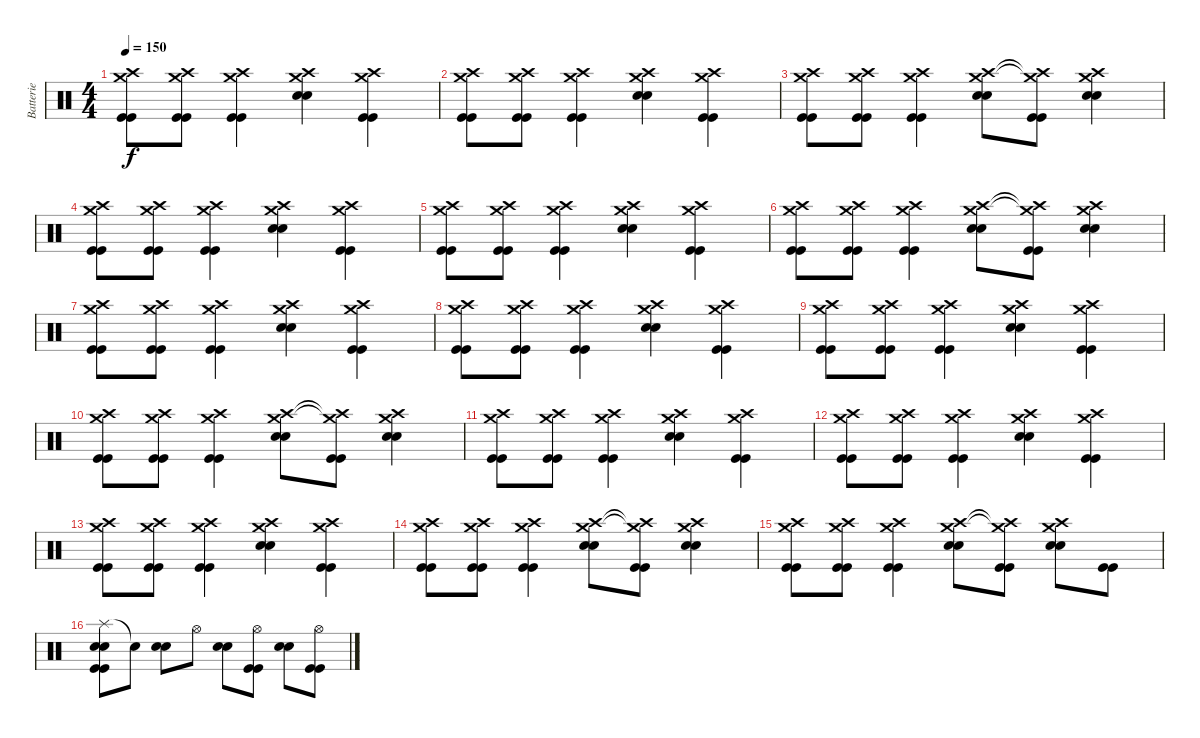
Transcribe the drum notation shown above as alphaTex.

\track ("Batterie" "Batterie") {instrument percussion}
\staff {score}
\articulation defaults
\ts (4 4)
\tempo 150
\clef neutral
\ks c
("Crash high (hit)" "Crash medium (hit)" "Kick (hit)" "Kick (hit)").8{dy f} ("Crash high (hit)" "Crash medium (hit)" "Kick (hit)" "Kick (hit)").8 ("Crash high (hit)" "Crash medium (hit)" "Kick (hit)" "Kick (hit)").4 ("Crash high (hit)" "Crash medium (hit)" "Electric Snare (hit)" "Electric Snare (hit)").4 ("Crash high (hit)" "Crash medium (hit)" "Kick (hit)" "Kick (hit)").4 |
("Crash high (hit)" "Crash medium (hit)" "Kick (hit)" "Kick (hit)").8 ("Crash high (hit)" "Crash medium (hit)" "Kick (hit)" "Kick (hit)").8 ("Crash high (hit)" "Crash medium (hit)" "Kick (hit)" "Kick (hit)").4 ("Crash high (hit)" "Crash medium (hit)" "Electric Snare (hit)" "Electric Snare (hit)").4 ("Crash high (hit)" "Crash medium (hit)" "Kick (hit)" "Kick (hit)").4 |
("Crash high (hit)" "Crash medium (hit)" "Kick (hit)" "Kick (hit)").8 ("Crash high (hit)" "Crash medium (hit)" "Kick (hit)" "Kick (hit)").8 ("Crash high (hit)" "Crash medium (hit)" "Kick (hit)" "Kick (hit)").4 ("Crash high (hit)" "Crash medium (hit)" "Electric Snare (hit)" "Electric Snare (hit)").8 ("Crash high (hit)"{t} "Crash medium (hit)"{t} "Kick (hit)" "Kick (hit)").8 ("Crash high (hit)" "Crash medium (hit)" "Electric Snare (hit)" "Electric Snare (hit)").4 |
("Crash high (hit)" "Crash medium (hit)" "Kick (hit)" "Kick (hit)").8 ("Crash high (hit)" "Crash medium (hit)" "Kick (hit)" "Kick (hit)").8 ("Crash high (hit)" "Crash medium (hit)" "Kick (hit)" "Kick (hit)").4 ("Crash high (hit)" "Crash medium (hit)" "Electric Snare (hit)" "Electric Snare (hit)").4 ("Crash high (hit)" "Crash medium (hit)" "Kick (hit)" "Kick (hit)").4 |
("Crash high (hit)" "Crash medium (hit)" "Kick (hit)" "Kick (hit)").8 ("Crash high (hit)" "Crash medium (hit)" "Kick (hit)" "Kick (hit)").8 ("Crash high (hit)" "Crash medium (hit)" "Kick (hit)" "Kick (hit)").4 ("Crash high (hit)" "Crash medium (hit)" "Electric Snare (hit)" "Electric Snare (hit)").4 ("Crash high (hit)" "Crash medium (hit)" "Kick (hit)" "Kick (hit)").4 |
("Crash high (hit)" "Crash medium (hit)" "Kick (hit)" "Kick (hit)").8 ("Crash high (hit)" "Crash medium (hit)" "Kick (hit)" "Kick (hit)").8 ("Crash high (hit)" "Crash medium (hit)" "Kick (hit)" "Kick (hit)").4 ("Crash high (hit)" "Crash medium (hit)" "Electric Snare (hit)" "Electric Snare (hit)").8 ("Crash high (hit)"{t} "Crash medium (hit)"{t} "Kick (hit)" "Kick (hit)").8 ("Crash high (hit)" "Crash medium (hit)" "Electric Snare (hit)" "Electric Snare (hit)").4 |
("Crash high (hit)" "Crash medium (hit)" "Kick (hit)" "Kick (hit)").8 ("Crash high (hit)" "Crash medium (hit)" "Kick (hit)" "Kick (hit)").8 ("Crash high (hit)" "Crash medium (hit)" "Kick (hit)" "Kick (hit)").4 ("Crash high (hit)" "Crash medium (hit)" "Electric Snare (hit)" "Electric Snare (hit)").4 ("Crash high (hit)" "Crash medium (hit)" "Kick (hit)" "Kick (hit)").4 |
("Crash high (hit)" "Crash medium (hit)" "Kick (hit)" "Kick (hit)").8 ("Crash high (hit)" "Crash medium (hit)" "Kick (hit)" "Kick (hit)").8 ("Crash high (hit)" "Crash medium (hit)" "Kick (hit)" "Kick (hit)").4 ("Crash high (hit)" "Crash medium (hit)" "Electric Snare (hit)" "Electric Snare (hit)").4 ("Crash high (hit)" "Crash medium (hit)" "Kick (hit)" "Kick (hit)").4 |
("Crash high (hit)" "Crash medium (hit)" "Kick (hit)" "Kick (hit)").8 ("Crash high (hit)" "Crash medium (hit)" "Kick (hit)" "Kick (hit)").8 ("Crash high (hit)" "Crash medium (hit)" "Kick (hit)" "Kick (hit)").4 ("Crash high (hit)" "Crash medium (hit)" "Electric Snare (hit)" "Electric Snare (hit)").4 ("Crash high (hit)" "Crash medium (hit)" "Kick (hit)" "Kick (hit)").4 |
("Crash high (hit)" "Crash medium (hit)" "Kick (hit)" "Kick (hit)").8 ("Crash high (hit)" "Crash medium (hit)" "Kick (hit)" "Kick (hit)").8 ("Crash high (hit)" "Crash medium (hit)" "Kick (hit)" "Kick (hit)").4 ("Crash high (hit)" "Crash medium (hit)" "Electric Snare (hit)" "Electric Snare (hit)").8 ("Crash high (hit)"{t} "Crash medium (hit)"{t} "Kick (hit)" "Kick (hit)").8 ("Crash high (hit)" "Crash medium (hit)" "Electric Snare (hit)" "Electric Snare (hit)").4 |
("Crash high (hit)" "Crash medium (hit)" "Kick (hit)" "Kick (hit)").8 ("Crash high (hit)" "Crash medium (hit)" "Kick (hit)" "Kick (hit)").8 ("Crash high (hit)" "Crash medium (hit)" "Kick (hit)" "Kick (hit)").4 ("Crash high (hit)" "Crash medium (hit)" "Electric Snare (hit)" "Electric Snare (hit)").4 ("Crash high (hit)" "Crash medium (hit)" "Kick (hit)" "Kick (hit)").4 |
("Crash high (hit)" "Crash medium (hit)" "Kick (hit)" "Kick (hit)").8 ("Crash high (hit)" "Crash medium (hit)" "Kick (hit)" "Kick (hit)").8 ("Crash high (hit)" "Crash medium (hit)" "Kick (hit)" "Kick (hit)").4 ("Crash high (hit)" "Crash medium (hit)" "Electric Snare (hit)" "Electric Snare (hit)").4 ("Crash high (hit)" "Crash medium (hit)" "Kick (hit)" "Kick (hit)").4 |
("Crash high (hit)" "Crash medium (hit)" "Kick (hit)" "Kick (hit)").8 ("Crash high (hit)" "Crash medium (hit)" "Kick (hit)" "Kick (hit)").8 ("Crash high (hit)" "Crash medium (hit)" "Kick (hit)" "Kick (hit)").4 ("Crash high (hit)" "Crash medium (hit)" "Electric Snare (hit)" "Electric Snare (hit)").4 ("Crash high (hit)" "Crash medium (hit)" "Kick (hit)" "Kick (hit)").4 |
("Crash high (hit)" "Crash medium (hit)" "Kick (hit)" "Kick (hit)").8 ("Crash high (hit)" "Crash medium (hit)" "Kick (hit)" "Kick (hit)").8 ("Crash high (hit)" "Crash medium (hit)" "Kick (hit)" "Kick (hit)").4 ("Crash high (hit)" "Crash medium (hit)" "Electric Snare (hit)" "Electric Snare (hit)").8 ("Crash high (hit)"{t} "Crash medium (hit)"{t} "Kick (hit)" "Kick (hit)").8 ("Crash high (hit)" "Crash medium (hit)" "Electric Snare (hit)" "Electric Snare (hit)").4 |
("Crash high (hit)" "Crash medium (hit)" "Kick (hit)" "Kick (hit)").8 ("Crash high (hit)" "Crash medium (hit)" "Kick (hit)" "Kick (hit)").8 ("Crash high (hit)" "Crash medium (hit)" "Kick (hit)" "Kick (hit)").4 ("Crash high (hit)" "Crash medium (hit)" "Electric Snare (hit)" "Electric Snare (hit)").8 ("Crash high (hit)"{t} "Crash medium (hit)"{t} "Kick (hit)" "Kick (hit)").8 ("Crash high (hit)" "Crash medium (hit)" "Electric Snare (hit)" "Electric Snare (hit)").8 ("Kick (hit)" "Kick (hit)").8 |
("Splash (hit)" "Electric Snare (hit)" "Electric Snare (hit)" "Kick (hit)" "Kick (hit)").8 "Snare (hit)"{t}.8 ("Electric Snare (hit)" "Electric Snare (hit)").8 "Hi-Hat (open)".8 ("Electric Snare (hit)" "Electric Snare (hit)").8 ("Hi-Hat (open)" "Kick (hit)" "Kick (hit)").8 ("Electric Snare (hit)" "Electric Snare (hit)").8 ("Hi-Hat (open)" "Kick (hit)" "Kick (hit)").8
